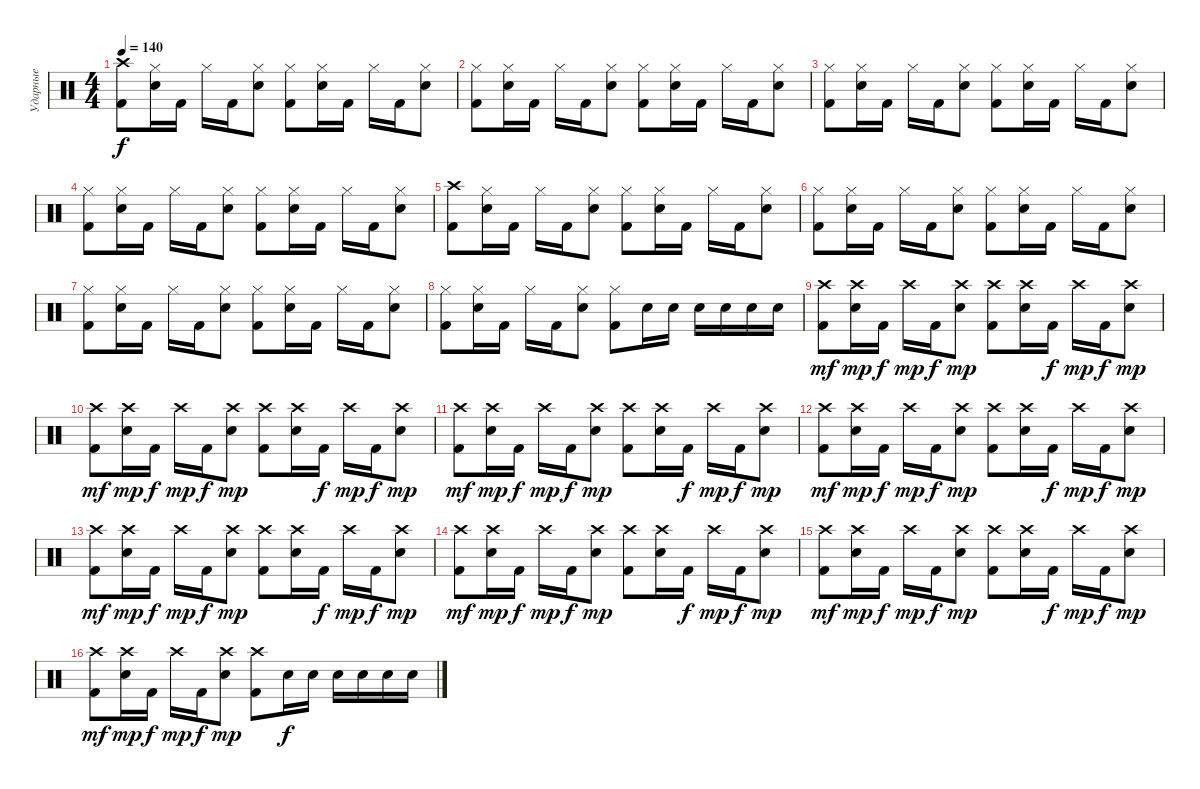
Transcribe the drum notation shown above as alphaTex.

\track ("Ударные" "Ударные") {instrument percussion}
\staff {score}
\articulation defaults
\ts (4 4)
\tempo 140
\clef neutral
\ks c
("Crash high (hit)" "Kick (hit) 2").8{dy f} ("Hi-Hat (closed)" "Electric Snare (hit)").16 "Kick (hit) 2".16 "Hi-Hat (closed)".16 "Kick (hit) 2".16 ("Hi-Hat (closed)" "Electric Snare (hit)").8 ("Hi-Hat (closed)" "Kick (hit) 2").8 ("Hi-Hat (closed)" "Electric Snare (hit)").16 "Kick (hit) 2".16 "Hi-Hat (closed)".16 "Kick (hit) 2".16 ("Hi-Hat (closed)" "Electric Snare (hit)").8 |
("Hi-Hat (closed)" "Kick (hit) 2").8 ("Hi-Hat (closed)" "Electric Snare (hit)").16 "Kick (hit) 2".16 "Hi-Hat (closed)".16 "Kick (hit) 2".16 ("Hi-Hat (closed)" "Electric Snare (hit)").8 ("Hi-Hat (closed)" "Kick (hit) 2").8 ("Hi-Hat (closed)" "Electric Snare (hit)").16 "Kick (hit) 2".16 "Hi-Hat (closed)".16 "Kick (hit) 2".16 ("Hi-Hat (closed)" "Electric Snare (hit)").8 |
("Hi-Hat (closed)" "Kick (hit) 2").8 ("Hi-Hat (closed)" "Electric Snare (hit)").16 "Kick (hit) 2".16 "Hi-Hat (closed)".16 "Kick (hit) 2".16 ("Hi-Hat (closed)" "Electric Snare (hit)").8 ("Hi-Hat (closed)" "Kick (hit) 2").8 ("Hi-Hat (closed)" "Electric Snare (hit)").16 "Kick (hit) 2".16 "Hi-Hat (closed)".16 "Kick (hit) 2".16 ("Hi-Hat (closed)" "Electric Snare (hit)").8 |
("Hi-Hat (closed)" "Kick (hit) 2").8 ("Hi-Hat (closed)" "Electric Snare (hit)").16 "Kick (hit) 2".16 "Hi-Hat (closed)".16 "Kick (hit) 2".16 ("Hi-Hat (closed)" "Electric Snare (hit)").8 ("Hi-Hat (closed)" "Kick (hit) 2").8 ("Hi-Hat (closed)" "Electric Snare (hit)").16 "Kick (hit) 2".16 "Hi-Hat (closed)".16 "Kick (hit) 2".16 ("Hi-Hat (closed)" "Electric Snare (hit)").8 |
("Crash high (hit)" "Kick (hit) 2").8 ("Hi-Hat (closed)" "Electric Snare (hit)").16 "Kick (hit) 2".16 "Hi-Hat (closed)".16 "Kick (hit) 2".16 ("Hi-Hat (closed)" "Electric Snare (hit)").8 ("Hi-Hat (closed)" "Kick (hit) 2").8 ("Hi-Hat (closed)" "Electric Snare (hit)").16 "Kick (hit) 2".16 "Hi-Hat (closed)".16 "Kick (hit) 2".16 ("Hi-Hat (closed)" "Electric Snare (hit)").8 |
("Hi-Hat (closed)" "Kick (hit) 2").8 ("Hi-Hat (closed)" "Electric Snare (hit)").16 "Kick (hit) 2".16 "Hi-Hat (closed)".16 "Kick (hit) 2".16 ("Hi-Hat (closed)" "Electric Snare (hit)").8 ("Hi-Hat (closed)" "Kick (hit) 2").8 ("Hi-Hat (closed)" "Electric Snare (hit)").16 "Kick (hit) 2".16 "Hi-Hat (closed)".16 "Kick (hit) 2".16 ("Hi-Hat (closed)" "Electric Snare (hit)").8 |
("Hi-Hat (closed)" "Kick (hit) 2").8 ("Hi-Hat (closed)" "Electric Snare (hit)").16 "Kick (hit) 2".16 "Hi-Hat (closed)".16 "Kick (hit) 2".16 ("Hi-Hat (closed)" "Electric Snare (hit)").8 ("Hi-Hat (closed)" "Kick (hit) 2").8 ("Hi-Hat (closed)" "Electric Snare (hit)").16 "Kick (hit) 2".16 "Hi-Hat (closed)".16 "Kick (hit) 2".16 ("Hi-Hat (closed)" "Electric Snare (hit)").8 |
("Hi-Hat (closed)" "Kick (hit) 2").8 ("Hi-Hat (closed)" "Electric Snare (hit)").16 "Kick (hit) 2".16 "Hi-Hat (closed)".16 "Kick (hit) 2".16 ("Hi-Hat (closed)" "Electric Snare (hit)").8 ("Hi-Hat (closed)" "Kick (hit) 2").8 "Electric Snare (hit)".16 "Electric Snare (hit)".16 "Electric Snare (hit)".16 "Electric Snare (hit)".16 "Electric Snare (hit)".16 "Electric Snare (hit)".16 |
("Crash high (hit)" "Kick (hit) 2").8{dy mf} ("Crash high (hit)" "Electric Snare (hit)").16{dy mp} "Kick (hit) 2".16{dy f} "Crash high (hit)".16{dy mp} "Kick (hit) 2".16{dy f} ("Crash high (hit)" "Electric Snare (hit)").8{dy mp} ("Crash high (hit)" "Kick (hit) 2").8 ("Crash high (hit)" "Electric Snare (hit)").16 "Kick (hit) 2".16{dy f} "Crash high (hit)".16{dy mp} "Kick (hit) 2".16{dy f} ("Crash high (hit)" "Electric Snare (hit)").8{dy mp} |
("Crash high (hit)" "Kick (hit) 2").8{dy mf} ("Crash high (hit)" "Electric Snare (hit)").16{dy mp} "Kick (hit) 2".16{dy f} "Crash high (hit)".16{dy mp} "Kick (hit) 2".16{dy f} ("Crash high (hit)" "Electric Snare (hit)").8{dy mp} ("Crash high (hit)" "Kick (hit) 2").8 ("Crash high (hit)" "Electric Snare (hit)").16 "Kick (hit) 2".16{dy f} "Crash high (hit)".16{dy mp} "Kick (hit) 2".16{dy f} ("Crash high (hit)" "Electric Snare (hit)").8{dy mp} |
("Crash high (hit)" "Kick (hit) 2").8{dy mf} ("Crash high (hit)" "Electric Snare (hit)").16{dy mp} "Kick (hit) 2".16{dy f} "Crash high (hit)".16{dy mp} "Kick (hit) 2".16{dy f} ("Crash high (hit)" "Electric Snare (hit)").8{dy mp} ("Crash high (hit)" "Kick (hit) 2").8 ("Crash high (hit)" "Electric Snare (hit)").16 "Kick (hit) 2".16{dy f} "Crash high (hit)".16{dy mp} "Kick (hit) 2".16{dy f} ("Crash high (hit)" "Electric Snare (hit)").8{dy mp} |
("Crash high (hit)" "Kick (hit) 2").8{dy mf} ("Crash high (hit)" "Electric Snare (hit)").16{dy mp} "Kick (hit) 2".16{dy f} "Crash high (hit)".16{dy mp} "Kick (hit) 2".16{dy f} ("Crash high (hit)" "Electric Snare (hit)").8{dy mp} ("Crash high (hit)" "Kick (hit) 2").8 ("Crash high (hit)" "Electric Snare (hit)").16 "Kick (hit) 2".16{dy f} "Crash high (hit)".16{dy mp} "Kick (hit) 2".16{dy f} ("Crash high (hit)" "Electric Snare (hit)").8{dy mp} |
("Crash high (hit)" "Kick (hit) 2").8{dy mf} ("Crash high (hit)" "Electric Snare (hit)").16{dy mp} "Kick (hit) 2".16{dy f} "Crash high (hit)".16{dy mp} "Kick (hit) 2".16{dy f} ("Crash high (hit)" "Electric Snare (hit)").8{dy mp} ("Crash high (hit)" "Kick (hit) 2").8 ("Crash high (hit)" "Electric Snare (hit)").16 "Kick (hit) 2".16{dy f} "Crash high (hit)".16{dy mp} "Kick (hit) 2".16{dy f} ("Crash high (hit)" "Electric Snare (hit)").8{dy mp} |
("Crash high (hit)" "Kick (hit) 2").8{dy mf} ("Crash high (hit)" "Electric Snare (hit)").16{dy mp} "Kick (hit) 2".16{dy f} "Crash high (hit)".16{dy mp} "Kick (hit) 2".16{dy f} ("Crash high (hit)" "Electric Snare (hit)").8{dy mp} ("Crash high (hit)" "Kick (hit) 2").8 ("Crash high (hit)" "Electric Snare (hit)").16 "Kick (hit) 2".16{dy f} "Crash high (hit)".16{dy mp} "Kick (hit) 2".16{dy f} ("Crash high (hit)" "Electric Snare (hit)").8{dy mp} |
("Crash high (hit)" "Kick (hit) 2").8{dy mf} ("Crash high (hit)" "Electric Snare (hit)").16{dy mp} "Kick (hit) 2".16{dy f} "Crash high (hit)".16{dy mp} "Kick (hit) 2".16{dy f} ("Crash high (hit)" "Electric Snare (hit)").8{dy mp} ("Crash high (hit)" "Kick (hit) 2").8 ("Crash high (hit)" "Electric Snare (hit)").16 "Kick (hit) 2".16{dy f} "Crash high (hit)".16{dy mp} "Kick (hit) 2".16{dy f} ("Crash high (hit)" "Electric Snare (hit)").8{dy mp} |
("Crash high (hit)" "Kick (hit) 2").8{dy mf} ("Crash high (hit)" "Electric Snare (hit)").16{dy mp} "Kick (hit) 2".16{dy f} "Crash high (hit)".16{dy mp} "Kick (hit) 2".16{dy f} ("Crash high (hit)" "Electric Snare (hit)").8{dy mp} ("Crash high (hit)" "Kick (hit) 2").8 "Electric Snare (hit)".16{dy f} "Electric Snare (hit)".16 "Electric Snare (hit)".16 "Electric Snare (hit)".16 "Electric Snare (hit)".16 "Electric Snare (hit)".16
